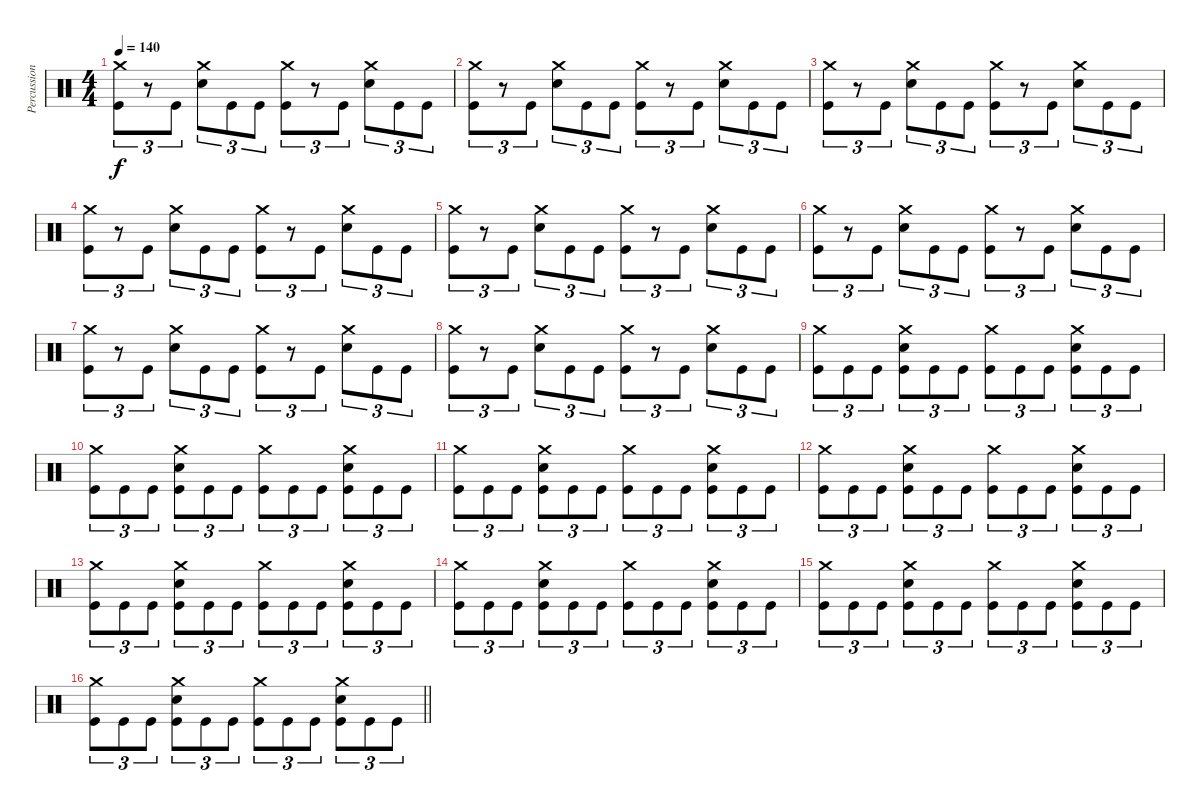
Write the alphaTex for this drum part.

\track ("Percussion" "Percussion") {instrument percussion}
\staff
\articulation defaults
\ts (4 4)
\tempo 140
\clef neutral
\ks c
("Crash medium (hit)" "Kick (hit)").8{tu (3 2) dy f} r.8{tu (3 2)} "Kick (hit)".8{tu (3 2)} ("Crash medium (hit)" "Snare (hit) 2").8{tu (3 2)} "Kick (hit)".8{tu (3 2)} "Kick (hit)".8{tu (3 2)} ("Crash medium (hit)" "Kick (hit)").8{tu (3 2)} r.8{tu (3 2)} "Kick (hit)".8{tu (3 2)} ("Crash medium (hit)" "Snare (hit) 2").8{tu (3 2)} "Kick (hit)".8{tu (3 2)} "Kick (hit)".8{tu (3 2)} |
("Crash medium (hit)" "Kick (hit)").8{tu (3 2)} r.8{tu (3 2)} "Kick (hit)".8{tu (3 2)} ("Crash medium (hit)" "Snare (hit) 2").8{tu (3 2)} "Kick (hit)".8{tu (3 2)} "Kick (hit)".8{tu (3 2)} ("Crash medium (hit)" "Kick (hit)").8{tu (3 2)} r.8{tu (3 2)} "Kick (hit)".8{tu (3 2)} ("Crash medium (hit)" "Snare (hit) 2").8{tu (3 2)} "Kick (hit)".8{tu (3 2)} "Kick (hit)".8{tu (3 2)} |
("Crash medium (hit)" "Kick (hit)").8{tu (3 2)} r.8{tu (3 2)} "Kick (hit)".8{tu (3 2)} ("Crash medium (hit)" "Snare (hit) 2").8{tu (3 2)} "Kick (hit)".8{tu (3 2)} "Kick (hit)".8{tu (3 2)} ("Crash medium (hit)" "Kick (hit)").8{tu (3 2)} r.8{tu (3 2)} "Kick (hit)".8{tu (3 2)} ("Crash medium (hit)" "Snare (hit) 2").8{tu (3 2)} "Kick (hit)".8{tu (3 2)} "Kick (hit)".8{tu (3 2)} |
("Crash medium (hit)" "Kick (hit)").8{tu (3 2)} r.8{tu (3 2)} "Kick (hit)".8{tu (3 2)} ("Crash medium (hit)" "Snare (hit) 2").8{tu (3 2)} "Kick (hit)".8{tu (3 2)} "Kick (hit)".8{tu (3 2)} ("Crash medium (hit)" "Kick (hit)").8{tu (3 2)} r.8{tu (3 2)} "Kick (hit)".8{tu (3 2)} ("Crash medium (hit)" "Snare (hit) 2").8{tu (3 2)} "Kick (hit)".8{tu (3 2)} "Kick (hit)".8{tu (3 2)} |
("Crash medium (hit)" "Kick (hit)").8{tu (3 2)} r.8{tu (3 2)} "Kick (hit)".8{tu (3 2)} ("Crash medium (hit)" "Snare (hit) 2").8{tu (3 2)} "Kick (hit)".8{tu (3 2)} "Kick (hit)".8{tu (3 2)} ("Crash medium (hit)" "Kick (hit)").8{tu (3 2)} r.8{tu (3 2)} "Kick (hit)".8{tu (3 2)} ("Crash medium (hit)" "Snare (hit) 2").8{tu (3 2)} "Kick (hit)".8{tu (3 2)} "Kick (hit)".8{tu (3 2)} |
("Crash medium (hit)" "Kick (hit)").8{tu (3 2)} r.8{tu (3 2)} "Kick (hit)".8{tu (3 2)} ("Crash medium (hit)" "Snare (hit) 2").8{tu (3 2)} "Kick (hit)".8{tu (3 2)} "Kick (hit)".8{tu (3 2)} ("Crash medium (hit)" "Kick (hit)").8{tu (3 2)} r.8{tu (3 2)} "Kick (hit)".8{tu (3 2)} ("Crash medium (hit)" "Snare (hit) 2").8{tu (3 2)} "Kick (hit)".8{tu (3 2)} "Kick (hit)".8{tu (3 2)} |
("Crash medium (hit)" "Kick (hit)").8{tu (3 2)} r.8{tu (3 2)} "Kick (hit)".8{tu (3 2)} ("Crash medium (hit)" "Snare (hit) 2").8{tu (3 2)} "Kick (hit)".8{tu (3 2)} "Kick (hit)".8{tu (3 2)} ("Crash medium (hit)" "Kick (hit)").8{tu (3 2)} r.8{tu (3 2)} "Kick (hit)".8{tu (3 2)} ("Crash medium (hit)" "Snare (hit) 2").8{tu (3 2)} "Kick (hit)".8{tu (3 2)} "Kick (hit)".8{tu (3 2)} |
("Crash medium (hit)" "Kick (hit)").8{tu (3 2)} r.8{tu (3 2)} "Kick (hit)".8{tu (3 2)} ("Crash medium (hit)" "Snare (hit) 2").8{tu (3 2)} "Kick (hit)".8{tu (3 2)} "Kick (hit)".8{tu (3 2)} ("Crash medium (hit)" "Kick (hit)").8{tu (3 2)} r.8{tu (3 2)} "Kick (hit)".8{tu (3 2)} ("Crash medium (hit)" "Snare (hit) 2").8{tu (3 2)} "Kick (hit)".8{tu (3 2)} "Kick (hit)".8{tu (3 2)} |
("Crash medium (hit)" "Kick (hit)").8{tu (3 2)} "Kick (hit)".8{tu (3 2)} "Kick (hit)".8{tu (3 2)} ("Crash medium (hit)" "Snare (hit) 2" "Kick (hit)").8{tu (3 2)} "Kick (hit)".8{tu (3 2)} "Kick (hit)".8{tu (3 2)} ("Crash medium (hit)" "Kick (hit)").8{tu (3 2)} "Kick (hit)".8{tu (3 2)} "Kick (hit)".8{tu (3 2)} ("Crash medium (hit)" "Snare (hit) 2" "Kick (hit)").8{tu (3 2)} "Kick (hit)".8{tu (3 2)} "Kick (hit)".8{tu (3 2)} |
("Crash medium (hit)" "Kick (hit)").8{tu (3 2)} "Kick (hit)".8{tu (3 2)} "Kick (hit)".8{tu (3 2)} ("Crash medium (hit)" "Snare (hit) 2" "Kick (hit)").8{tu (3 2)} "Kick (hit)".8{tu (3 2)} "Kick (hit)".8{tu (3 2)} ("Crash medium (hit)" "Kick (hit)").8{tu (3 2)} "Kick (hit)".8{tu (3 2)} "Kick (hit)".8{tu (3 2)} ("Crash medium (hit)" "Snare (hit) 2" "Kick (hit)").8{tu (3 2)} "Kick (hit)".8{tu (3 2)} "Kick (hit)".8{tu (3 2)} |
("Crash medium (hit)" "Kick (hit)").8{tu (3 2)} "Kick (hit)".8{tu (3 2)} "Kick (hit)".8{tu (3 2)} ("Crash medium (hit)" "Snare (hit) 2" "Kick (hit)").8{tu (3 2)} "Kick (hit)".8{tu (3 2)} "Kick (hit)".8{tu (3 2)} ("Crash medium (hit)" "Kick (hit)").8{tu (3 2)} "Kick (hit)".8{tu (3 2)} "Kick (hit)".8{tu (3 2)} ("Crash medium (hit)" "Snare (hit) 2" "Kick (hit)").8{tu (3 2)} "Kick (hit)".8{tu (3 2)} "Kick (hit)".8{tu (3 2)} |
("Crash medium (hit)" "Kick (hit)").8{tu (3 2)} "Kick (hit)".8{tu (3 2)} "Kick (hit)".8{tu (3 2)} ("Crash medium (hit)" "Snare (hit) 2" "Kick (hit)").8{tu (3 2)} "Kick (hit)".8{tu (3 2)} "Kick (hit)".8{tu (3 2)} ("Crash medium (hit)" "Kick (hit)").8{tu (3 2)} "Kick (hit)".8{tu (3 2)} "Kick (hit)".8{tu (3 2)} ("Crash medium (hit)" "Snare (hit) 2" "Kick (hit)").8{tu (3 2)} "Kick (hit)".8{tu (3 2)} "Kick (hit)".8{tu (3 2)} |
("Crash medium (hit)" "Kick (hit)").8{tu (3 2)} "Kick (hit)".8{tu (3 2)} "Kick (hit)".8{tu (3 2)} ("Crash medium (hit)" "Snare (hit) 2" "Kick (hit)").8{tu (3 2)} "Kick (hit)".8{tu (3 2)} "Kick (hit)".8{tu (3 2)} ("Crash medium (hit)" "Kick (hit)").8{tu (3 2)} "Kick (hit)".8{tu (3 2)} "Kick (hit)".8{tu (3 2)} ("Crash medium (hit)" "Snare (hit) 2" "Kick (hit)").8{tu (3 2)} "Kick (hit)".8{tu (3 2)} "Kick (hit)".8{tu (3 2)} |
("Crash medium (hit)" "Kick (hit)").8{tu (3 2)} "Kick (hit)".8{tu (3 2)} "Kick (hit)".8{tu (3 2)} ("Crash medium (hit)" "Snare (hit) 2" "Kick (hit)").8{tu (3 2)} "Kick (hit)".8{tu (3 2)} "Kick (hit)".8{tu (3 2)} ("Crash medium (hit)" "Kick (hit)").8{tu (3 2)} "Kick (hit)".8{tu (3 2)} "Kick (hit)".8{tu (3 2)} ("Crash medium (hit)" "Snare (hit) 2" "Kick (hit)").8{tu (3 2)} "Kick (hit)".8{tu (3 2)} "Kick (hit)".8{tu (3 2)} |
("Crash medium (hit)" "Kick (hit)").8{tu (3 2)} "Kick (hit)".8{tu (3 2)} "Kick (hit)".8{tu (3 2)} ("Crash medium (hit)" "Snare (hit) 2" "Kick (hit)").8{tu (3 2)} "Kick (hit)".8{tu (3 2)} "Kick (hit)".8{tu (3 2)} ("Crash medium (hit)" "Kick (hit)").8{tu (3 2)} "Kick (hit)".8{tu (3 2)} "Kick (hit)".8{tu (3 2)} ("Crash medium (hit)" "Snare (hit) 2" "Kick (hit)").8{tu (3 2)} "Kick (hit)".8{tu (3 2)} "Kick (hit)".8{tu (3 2)} |
\barLineRight lightlight
("Crash medium (hit)" "Kick (hit)").8{tu (3 2)} "Kick (hit)".8{tu (3 2)} "Kick (hit)".8{tu (3 2)} ("Crash medium (hit)" "Snare (hit) 2" "Kick (hit)").8{tu (3 2)} "Kick (hit)".8{tu (3 2)} "Kick (hit)".8{tu (3 2)} ("Crash medium (hit)" "Kick (hit)").8{tu (3 2)} "Kick (hit)".8{tu (3 2)} "Kick (hit)".8{tu (3 2)} ("Crash medium (hit)" "Snare (hit) 2" "Kick (hit)").8{tu (3 2)} "Kick (hit)".8{tu (3 2)} "Kick (hit)".8{tu (3 2)}
